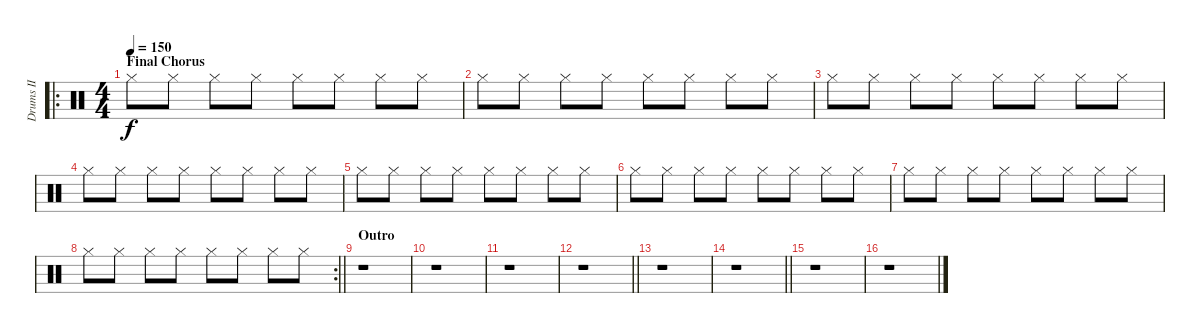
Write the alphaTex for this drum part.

\track ("Drums II" "Drums II") {instrument percussion}
\staff {score}
\articulation defaults
\ro
\ts (4 4)
\section ("" "Final Chorus")
\tempo 150
\clef neutral
\ks c "Hi-Hat (closed)".8{dy f} "Hi-Hat (closed)".8 "Hi-Hat (closed)".8 "Hi-Hat (closed)".8 "Hi-Hat (closed)".8 "Hi-Hat (closed)".8 "Hi-Hat (closed)".8 "Hi-Hat (closed)".8
|
"Hi-Hat (closed)".8 "Hi-Hat (closed)".8 "Hi-Hat (closed)".8 "Hi-Hat (closed)".8 "Hi-Hat (closed)".8 "Hi-Hat (closed)".8 "Hi-Hat (closed)".8 "Hi-Hat (closed)".8 |
"Hi-Hat (closed)".8 "Hi-Hat (closed)".8 "Hi-Hat (closed)".8 "Hi-Hat (closed)".8 "Hi-Hat (closed)".8 "Hi-Hat (closed)".8 "Hi-Hat (closed)".8 "Hi-Hat (closed)".8 |
"Hi-Hat (closed)".8 "Hi-Hat (closed)".8 "Hi-Hat (closed)".8 "Hi-Hat (closed)".8 "Hi-Hat (closed)".8 "Hi-Hat (closed)".8 "Hi-Hat (closed)".8 "Hi-Hat (closed)".8 |
"Hi-Hat (closed)".8 "Hi-Hat (closed)".8 "Hi-Hat (closed)".8 "Hi-Hat (closed)".8 "Hi-Hat (closed)".8 "Hi-Hat (closed)".8 "Hi-Hat (closed)".8 "Hi-Hat (closed)".8 |
"Hi-Hat (closed)".8 "Hi-Hat (closed)".8 "Hi-Hat (closed)".8 "Hi-Hat (closed)".8 "Hi-Hat (closed)".8 "Hi-Hat (closed)".8 "Hi-Hat (closed)".8 "Hi-Hat (closed)".8 |
"Hi-Hat (closed)".8 "Hi-Hat (closed)".8 "Hi-Hat (closed)".8 "Hi-Hat (closed)".8 "Hi-Hat (closed)".8 "Hi-Hat (closed)".8 "Hi-Hat (closed)".8 "Hi-Hat (closed)".8 |
\rc 2
\barLineRight lightlight "Hi-Hat (closed)".8 "Hi-Hat (closed)".8 "Hi-Hat (closed)".8 "Hi-Hat (closed)".8 "Hi-Hat (closed)".8 "Hi-Hat (closed)".8 "Hi-Hat (closed)".8 "Hi-Hat (closed)".8
|
\section ("" "Outro")
r.1 |
r.1 |
r.1 |
\barLineRight lightlight
r.1 |
r.1 |
\barLineRight lightlight
r.1 |
r.1 |
r.1
